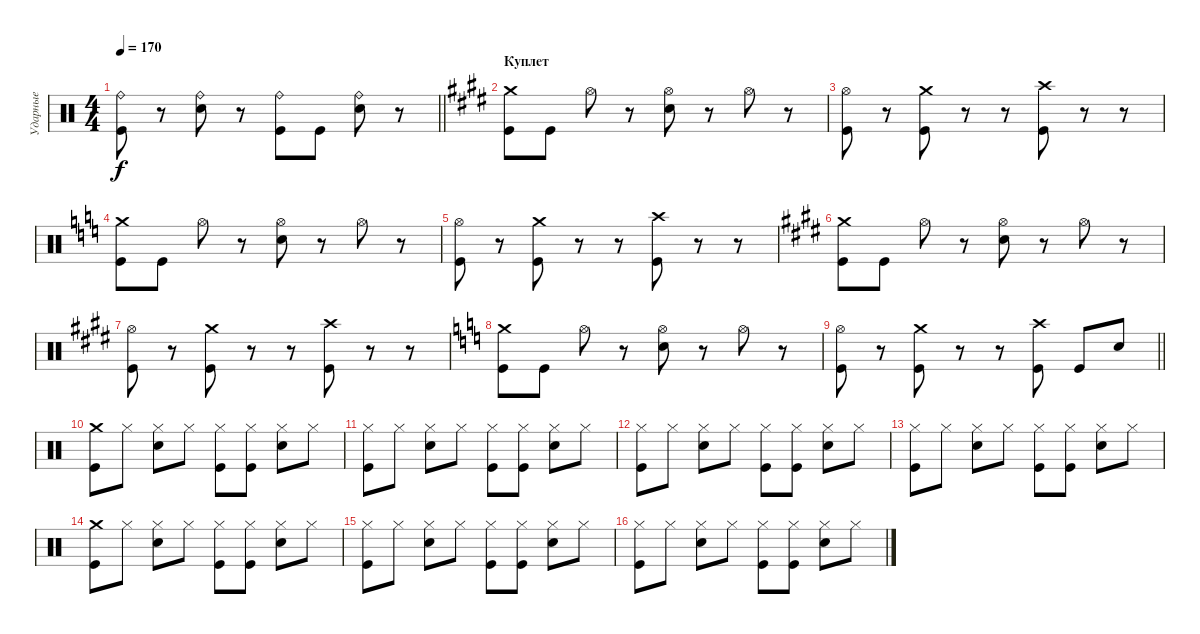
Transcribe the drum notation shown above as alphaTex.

\track ("Ударные" "Ударные") {instrument percussion}
\staff {score}
\articulation defaults
\ts (4 4)
\tempo 170
\clef neutral
\barLineRight lightlight
\ks c
("Ride (bell)" "Kick (hit)").8{dy f} r.8 ("Ride (bell)" "Electric Snare (hit)").8 r.8 ("Ride (bell)" "Kick (hit)").8 "Kick (hit)".8 ("Ride (bell)" "Electric Snare (hit)").8 r.8 |
\section ("" "Куплет")
\ks e
("Crash medium (hit)" "Kick (hit)").8 "Kick (hit)".8 "Hi-Hat (open)".8 r.8 ("Hi-Hat (open)" "Electric Snare (hit)").8 r.8 "Hi-Hat (open)".8 r.8 |
("Hi-Hat (open)" "Kick (hit)").8 r.8 ("Crash medium (hit)" "Kick (hit)").8 r.8 r.8 ("Crash high (hit)" "Kick (hit)").8 r.8 r.8 |
\ks c
("Crash medium (hit)" "Kick (hit)").8 "Kick (hit)".8 "Hi-Hat (open)".8 r.8 ("Hi-Hat (open)" "Electric Snare (hit)").8 r.8 "Hi-Hat (open)".8 r.8 |
("Hi-Hat (open)" "Kick (hit)").8 r.8 ("Crash medium (hit)" "Kick (hit)").8 r.8 r.8 ("Crash high (hit)" "Kick (hit)").8 r.8 r.8 |
\ks e
("Crash medium (hit)" "Kick (hit)").8 "Kick (hit)".8 "Hi-Hat (open)".8 r.8 ("Hi-Hat (open)" "Electric Snare (hit)").8 r.8 "Hi-Hat (open)".8 r.8 |
("Hi-Hat (open)" "Kick (hit)").8 r.8 ("Crash medium (hit)" "Kick (hit)").8 r.8 r.8 ("Crash high (hit)" "Kick (hit)").8 r.8 r.8 |
\ks c
("Crash medium (hit)" "Kick (hit)").8 "Kick (hit)".8 "Hi-Hat (open)".8 r.8 ("Hi-Hat (open)" "Electric Snare (hit)").8 r.8 "Hi-Hat (open)".8 r.8 |
\barLineRight lightlight
("Hi-Hat (open)" "Kick (hit)").8 r.8 ("Crash medium (hit)" "Kick (hit)").8 r.8 r.8 ("Crash high (hit)" "Kick (hit)").8 "Kick (hit)".8 "Electric Snare (hit)".8 |
\section ("" " ")
("Crash medium (hit)" "Kick (hit)").8 "Hi-Hat (closed)".8 ("Hi-Hat (closed)" "Electric Snare (hit)").8 "Hi-Hat (closed)".8 ("Hi-Hat (closed)" "Kick (hit)").8 ("Hi-Hat (closed)" "Kick (hit)").8 ("Hi-Hat (closed)" "Electric Snare (hit)").8 "Hi-Hat (closed)".8 |
("Hi-Hat (closed)" "Kick (hit)").8 "Hi-Hat (closed)".8 ("Hi-Hat (closed)" "Electric Snare (hit)").8 "Hi-Hat (closed)".8 ("Hi-Hat (closed)" "Kick (hit)").8 ("Hi-Hat (closed)" "Kick (hit)").8 ("Hi-Hat (closed)" "Electric Snare (hit)").8 "Hi-Hat (closed)".8 |
("Hi-Hat (closed)" "Kick (hit)").8 "Hi-Hat (closed)".8 ("Hi-Hat (closed)" "Electric Snare (hit)").8 "Hi-Hat (closed)".8 ("Hi-Hat (closed)" "Kick (hit)").8 ("Hi-Hat (closed)" "Kick (hit)").8 ("Hi-Hat (closed)" "Electric Snare (hit)").8 "Hi-Hat (closed)".8 |
("Hi-Hat (closed)" "Kick (hit)").8 "Hi-Hat (closed)".8 ("Hi-Hat (closed)" "Electric Snare (hit)").8 "Hi-Hat (closed)".8 ("Hi-Hat (closed)" "Kick (hit)").8 ("Hi-Hat (closed)" "Kick (hit)").8 ("Hi-Hat (closed)" "Electric Snare (hit)").8 "Hi-Hat (closed)".8 |
("Crash medium (hit)" "Kick (hit)").8 "Hi-Hat (closed)".8 ("Hi-Hat (closed)" "Electric Snare (hit)").8 "Hi-Hat (closed)".8 ("Hi-Hat (closed)" "Kick (hit)").8 ("Hi-Hat (closed)" "Kick (hit)").8 ("Hi-Hat (closed)" "Electric Snare (hit)").8 "Hi-Hat (closed)".8 |
("Hi-Hat (closed)" "Kick (hit)").8 "Hi-Hat (closed)".8 ("Hi-Hat (closed)" "Electric Snare (hit)").8 "Hi-Hat (closed)".8 ("Hi-Hat (closed)" "Kick (hit)").8 ("Hi-Hat (closed)" "Kick (hit)").8 ("Hi-Hat (closed)" "Electric Snare (hit)").8 "Hi-Hat (closed)".8 |
("Hi-Hat (closed)" "Kick (hit)").8 "Hi-Hat (closed)".8 ("Hi-Hat (closed)" "Electric Snare (hit)").8 "Hi-Hat (closed)".8 ("Hi-Hat (closed)" "Kick (hit)").8 ("Hi-Hat (closed)" "Kick (hit)").8 ("Hi-Hat (closed)" "Electric Snare (hit)").8 "Hi-Hat (closed)".8
